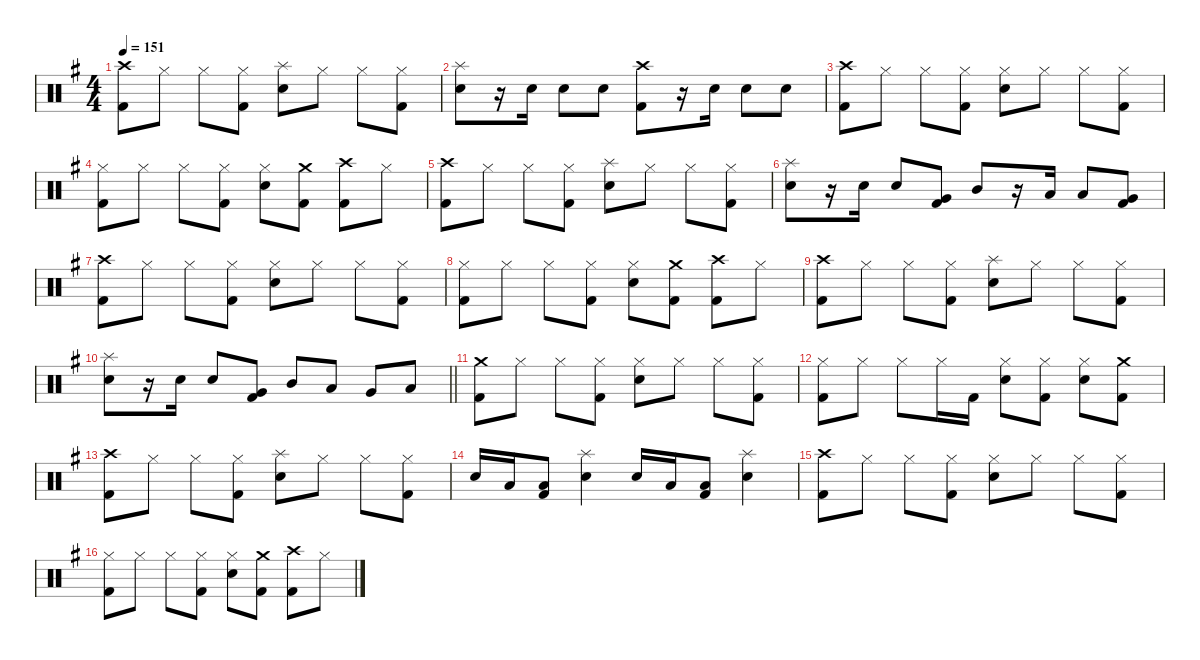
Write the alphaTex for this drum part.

\defaultSystemsLayout 4
\hideDynamics
\bracketExtendMode nobrackets
\singleTrackTrackNamePolicy hidden
\multiTrackTrackNamePolicy hidden
\otherSystemsTrackNameOrientation horizontal
\track ("Lars Ulrich" "drm.") {instrument percussion}
\staff {score}
\articulation defaults
\ts (4 4)
\tempo 151
\clef neutral
\ks eminor
("Crash high (hit)"{acc forcenatural} "Kick (hit) 2"{acc forcenatural}).8{dy f beam Down} "Hi-Hat (closed)"{acc forcenatural}.8{beam Down} "Hi-Hat (closed)"{acc forcenatural}.8{beam Down} ("Hi-Hat (closed)"{acc forcenatural} "Kick (hit) 2"{acc forcenatural}).8{beam Down} ("Splash (hit)"{acc forcenatural} "Snare (hit) 2"{acc forcenatural}).8{beam Down} "Hi-Hat (closed)"{acc forcenatural}.8{beam Down} "Hi-Hat (closed)"{acc forcenatural}.8{beam Down} ("Hi-Hat (closed)"{acc forcenatural} "Kick (hit) 2"{acc forcenatural}).8{beam Down} |
("Splash (hit)"{acc forcenatural} "Snare (hit) 2"{acc forcenatural}).8{beam Down} r.16{beam Down} "Snare (hit) 2"{acc forcenatural}.16{beam Down} "Snare (hit) 2"{acc forcenatural}.8{beam Down} "Snare (hit) 2"{acc forcenatural}.8{beam Down} ("Crash high (hit)"{acc forcenatural} "Kick (hit) 2"{acc forcenatural}).8{beam Down} r.16{beam Down} "Snare (hit) 2"{acc forcenatural}.16{beam Down} "Snare (hit) 2"{acc forcenatural}.8{beam Down} "Snare (hit) 2"{acc forcenatural}.8{beam Down} |
("Crash high (hit)"{acc forcenatural} "Kick (hit) 2"{acc forcenatural}).8{beam Down} "Hi-Hat (closed)"{acc forcenatural}.8{beam Down} "Hi-Hat (closed)"{acc forcenatural}.8{beam Down} ("Hi-Hat (closed)"{acc forcenatural} "Kick (hit) 2"{acc forcenatural}).8{beam Down} ("Hi-Hat (closed)"{acc forcenatural} "Snare (hit) 2"{acc forcenatural}).8{beam Down} "Hi-Hat (closed)"{acc forcenatural}.8{beam Down} "Hi-Hat (closed)"{acc forcenatural}.8{beam Down} ("Hi-Hat (closed)"{acc forcenatural} "Kick (hit) 2"{acc forcenatural}).8{beam Down} |
("Hi-Hat (closed)"{acc forcenatural} "Kick (hit) 2"{acc forcenatural}).8{beam Down} "Hi-Hat (closed)"{acc forcenatural}.8{beam Down} "Hi-Hat (closed)"{acc forcenatural}.8{beam Down} ("Hi-Hat (closed)"{acc forcenatural} "Kick (hit) 2"{acc forcenatural}).8{beam Down} ("Hi-Hat (closed)"{acc forcenatural} "Snare (hit) 2"{acc forcenatural}).8{beam Down} ("Crash medium (hit)"{acc forcenatural} "Kick (hit) 2"{acc forcenatural}).8{beam Down} ("Crash high (hit)"{acc forcenatural} "Kick (hit) 2"{acc forcenatural}).8{beam Down} "Hi-Hat (closed)"{acc forcenatural}.8{beam Down} |
("Crash high (hit)"{acc forcenatural} "Kick (hit) 2"{acc forcenatural}).8{beam Down} "Hi-Hat (closed)"{acc forcenatural}.8{beam Down} "Hi-Hat (closed)"{acc forcenatural}.8{beam Down} ("Hi-Hat (closed)"{acc forcenatural} "Kick (hit) 2"{acc forcenatural}).8{beam Down} ("Splash (hit)"{acc forcenatural} "Snare (hit) 2"{acc forcenatural}).8{beam Down} "Hi-Hat (closed)"{acc forcenatural}.8{beam Down} "Hi-Hat (closed)"{acc forcenatural}.8{beam Down} ("Hi-Hat (closed)"{acc forcenatural} "Kick (hit) 2"{acc forcenatural}).8{beam Down} |
("Splash (hit)"{acc forcenatural} "Snare (hit) 2"{acc forcenatural}).8{beam Down} r.16{beam Down} "Snare (hit) 2"{acc forcenatural}.16{beam Down} "Snare (hit) 2"{acc forcenatural}.8{beam Up} ("Very Low Tom (hit)"{acc forcenatural} "Kick (hit) 2"{acc forcenatural}).8{beam Up} "Mid Tom (hit)"{acc forcenatural}.8{beam Up} r.16{beam Up} "Low Tom (hit)"{acc forcenatural}.16{beam Up} "Low Tom (hit)"{acc forcenatural}.8{beam Up} ("Very Low Tom (hit)"{acc forcenatural} "Kick (hit) 2"{acc forcenatural}).8{beam Up} |
("Crash high (hit)"{acc forcenatural} "Kick (hit) 2"{acc forcenatural}).8{beam Down} "Hi-Hat (closed)"{acc forcenatural}.8{beam Down} "Hi-Hat (closed)"{acc forcenatural}.8{beam Down} ("Hi-Hat (closed)"{acc forcenatural} "Kick (hit) 2"{acc forcenatural}).8{beam Down} ("Hi-Hat (closed)"{acc forcenatural} "Snare (hit) 2"{acc forcenatural}).8{beam Down} "Hi-Hat (closed)"{acc forcenatural}.8{beam Down} "Hi-Hat (closed)"{acc forcenatural}.8{beam Down} ("Hi-Hat (closed)"{acc forcenatural} "Kick (hit) 2"{acc forcenatural}).8{beam Down} |
("Hi-Hat (closed)"{acc forcenatural} "Kick (hit) 2"{acc forcenatural}).8{beam Down} "Hi-Hat (closed)"{acc forcenatural}.8{beam Down} "Hi-Hat (closed)"{acc forcenatural}.8{beam Down} ("Hi-Hat (closed)"{acc forcenatural} "Kick (hit) 2"{acc forcenatural}).8{beam Down} ("Hi-Hat (closed)"{acc forcenatural} "Snare (hit) 2"{acc forcenatural}).8{beam Down} ("Crash medium (hit)"{acc forcenatural} "Kick (hit) 2"{acc forcenatural}).8{beam Down} ("Crash high (hit)"{acc forcenatural} "Kick (hit) 2"{acc forcenatural}).8{beam Down} "Hi-Hat (closed)"{acc forcenatural}.8{beam Down} |
("Crash high (hit)"{acc forcenatural} "Kick (hit) 2"{acc forcenatural}).8{beam Down} "Hi-Hat (closed)"{acc forcenatural}.8{beam Down} "Hi-Hat (closed)"{acc forcenatural}.8{beam Down} ("Hi-Hat (closed)"{acc forcenatural} "Kick (hit) 2"{acc forcenatural}).8{beam Down} ("Splash (hit)"{acc forcenatural} "Snare (hit) 2"{acc forcenatural}).8{beam Down} "Hi-Hat (closed)"{acc forcenatural}.8{beam Down} "Hi-Hat (closed)"{acc forcenatural}.8{beam Down} ("Hi-Hat (closed)"{acc forcenatural} "Kick (hit) 2"{acc forcenatural}).8{beam Down} |
\barLineRight lightlight
("Splash (hit)"{acc forcenatural} "Snare (hit) 2"{acc forcenatural}).8{beam Down} r.16{beam Down} "Snare (hit) 2"{acc forcenatural}.16{beam Down} "Snare (hit) 2"{acc forcenatural}.8{beam Up} ("Very Low Tom (hit)"{acc forcenatural} "Kick (hit) 2"{acc forcenatural}).8{beam Up} "Mid Tom (hit)"{acc forcenatural}.8{beam Up} "Low Tom (hit)"{acc forcenatural}.8{beam Up} "Very Low Tom (hit)"{acc forcenatural}.8{beam Up} "Low Floor Tom (hit)"{acc forcenatural}.8{beam Up} |
("Crash medium (hit)"{acc forcenatural} "Kick (hit) 2"{acc forcenatural}).8{beam Down} "Hi-Hat (closed)"{acc forcenatural}.8{beam Down} "Hi-Hat (closed)"{acc forcenatural}.8{beam Down} ("Hi-Hat (closed)"{acc forcenatural} "Kick (hit) 2"{acc forcenatural}).8{beam Down} ("Hi-Hat (closed)"{acc forcenatural} "Snare (hit) 2"{acc forcenatural}).8{beam Down} "Hi-Hat (closed)"{acc forcenatural}.8{beam Down} "Hi-Hat (closed)"{acc forcenatural}.8{beam Down} ("Hi-Hat (closed)"{acc forcenatural} "Kick (hit) 2"{acc forcenatural}).8{beam Down} |
("Hi-Hat (closed)"{acc forcenatural} "Kick (hit) 2"{acc forcenatural}).8{beam Down} "Hi-Hat (closed)"{acc forcenatural}.8{beam Down} "Hi-Hat (closed)"{acc forcenatural}.8{beam Down} "Hi-Hat (closed)"{acc forcenatural}.16{beam Down} "Kick (hit) 2"{acc forcenatural}.16{beam Down} ("Hi-Hat (closed)"{acc forcenatural} "Snare (hit) 2"{acc forcenatural}).8{beam Down} ("Hi-Hat (closed)"{acc forcenatural} "Kick (hit) 2"{acc forcenatural}).8{beam Down} ("Hi-Hat (closed)"{acc forcenatural} "Snare (hit) 2"{acc forcenatural}).8{beam Down} ("Crash medium (hit)"{acc forcenatural} "Kick (hit) 2"{acc forcenatural}).8{beam Down} |
("Crash high (hit)"{acc forcenatural} "Kick (hit) 2"{acc forcenatural}).8{beam Down} "Hi-Hat (closed)"{acc forcenatural}.8{beam Down} "Hi-Hat (closed)"{acc forcenatural}.8{beam Down} ("Hi-Hat (closed)"{acc forcenatural} "Kick (hit) 2"{acc forcenatural}).8{beam Down} ("Splash (hit)"{acc forcenatural} "Snare (hit) 2"{acc forcenatural}).8{beam Down} "Hi-Hat (closed)"{acc forcenatural}.8{beam Down} "Hi-Hat (closed)"{acc forcenatural}.8{beam Down} ("Hi-Hat (closed)"{acc forcenatural} "Kick (hit) 2"{acc forcenatural}).8{beam Down} |
"Snare (hit) 2"{acc forcenatural}.16{beam Up} "Low Tom (hit)"{acc forcenatural}.16{beam Up} ("Low Tom (hit)"{acc forcenatural} "Kick (hit) 2"{acc forcenatural}).8{beam Up} ("Splash (hit)"{acc forcenatural} "Snare (hit) 2"{acc forcenatural}).4{beam Down} "Snare (hit) 2"{acc forcenatural}.16{beam Up} "Low Tom (hit)"{acc forcenatural}.16{beam Up} ("Low Tom (hit)"{acc forcenatural} "Kick (hit) 2"{acc forcenatural}).8{beam Up} ("Splash (hit)"{acc forcenatural} "Snare (hit) 2"{acc forcenatural}).4{beam Down} |
("Crash high (hit)"{acc forcenatural} "Kick (hit) 2"{acc forcenatural}).8{beam Down} "Hi-Hat (closed)"{acc forcenatural}.8{beam Down} "Hi-Hat (closed)"{acc forcenatural}.8{beam Down} ("Hi-Hat (closed)"{acc forcenatural} "Kick (hit) 2"{acc forcenatural}).8{beam Down} ("Hi-Hat (closed)"{acc forcenatural} "Snare (hit) 2"{acc forcenatural}).8{beam Down} "Hi-Hat (closed)"{acc forcenatural}.8{beam Down} "Hi-Hat (closed)"{acc forcenatural}.8{beam Down} ("Hi-Hat (closed)"{acc forcenatural} "Kick (hit) 2"{acc forcenatural}).8{beam Down} |
("Hi-Hat (closed)"{acc forcenatural} "Kick (hit) 2"{acc forcenatural}).8{beam Down} "Hi-Hat (closed)"{acc forcenatural}.8{beam Down} "Hi-Hat (closed)"{acc forcenatural}.8{beam Down} ("Hi-Hat (closed)"{acc forcenatural} "Kick (hit) 2"{acc forcenatural}).8{beam Down} ("Hi-Hat (closed)"{acc forcenatural} "Snare (hit) 2"{acc forcenatural}).8{beam Down} ("Crash medium (hit)"{acc forcenatural} "Kick (hit) 2"{acc forcenatural}).8{beam Down} ("Crash high (hit)"{acc forcenatural} "Kick (hit) 2"{acc forcenatural}).8{beam Down} "Hi-Hat (closed)"{acc forcenatural}.8{beam Down}
